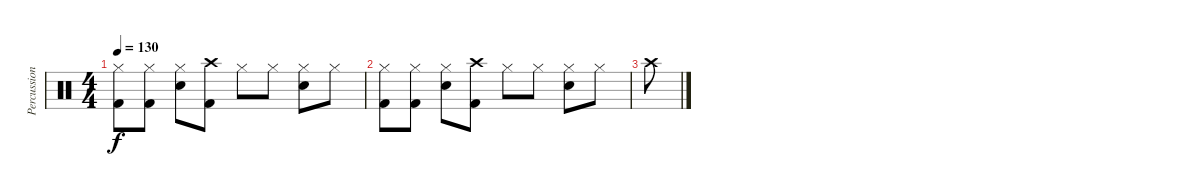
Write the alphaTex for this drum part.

\track ("Percussion" "Percussion") {instrument percussion}
\staff {score}
\articulation defaults
\ts (4 4)
\tempo 130
\clef neutral
\ks c
("Hi-Hat (closed)" "Kick (hit) 2").8{dy f} ("Hi-Hat (closed)" "Kick (hit) 2").8 ("Hi-Hat (closed)" "Snare (hit) 2").8 ("Crash high (hit)" "Kick (hit) 2").8 "Hi-Hat (closed)".8 "Hi-Hat (closed)".8 ("Hi-Hat (closed)" "Snare (hit) 2").8 "Hi-Hat (closed)".8 |
("Hi-Hat (closed)" "Kick (hit) 2").8 ("Hi-Hat (closed)" "Kick (hit) 2").8 ("Hi-Hat (closed)" "Snare (hit) 2").8 ("Crash high (hit)" "Kick (hit) 2").8 "Hi-Hat (closed)".8 "Hi-Hat (closed)".8 ("Hi-Hat (closed)" "Snare (hit) 2").8 "Hi-Hat (closed)".8 |
"Crash high (hit)".8
